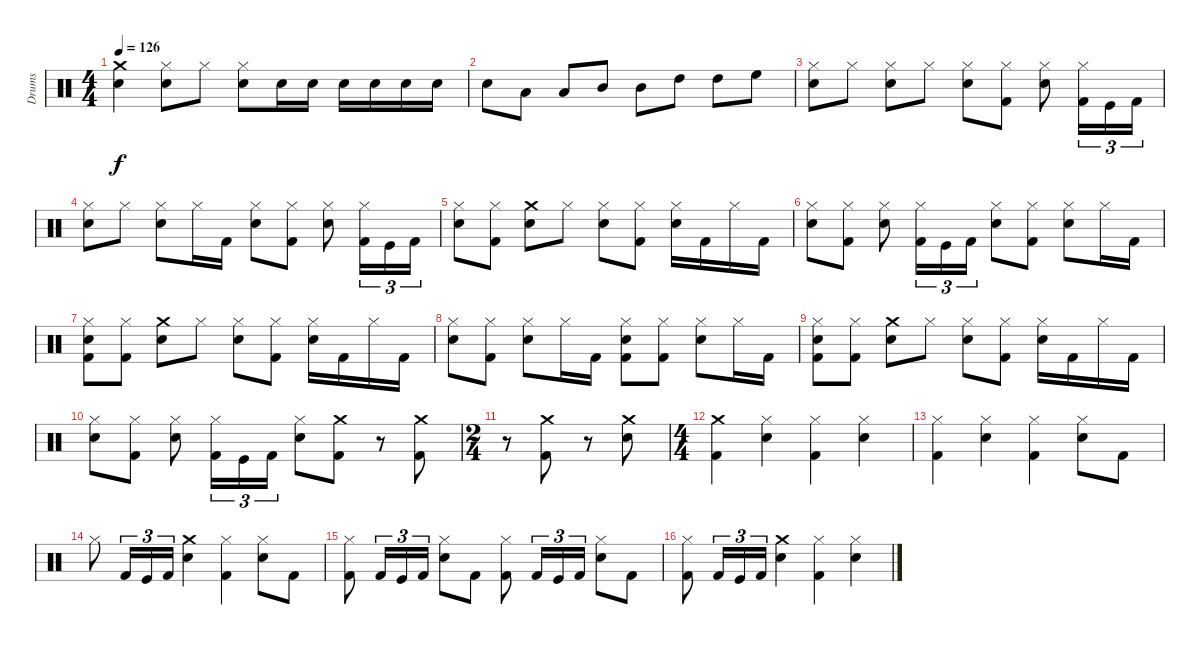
\track ("Drums" "Drums") {instrument percussion}
\staff {score}
\articulation defaults
\ts (4 4)
\tempo 126
\clef neutral
\ks c
("Crash medium (hit)" "Snare (hit) 2").4{dy f} ("Hi-Hat (closed)" "Snare (hit) 2").8 "Hi-Hat (closed)".8 ("Snare (hit) 2" "Hi-Hat (closed)").8 "Snare (hit) 2".16 "Snare (hit) 2".16 "Snare (hit) 2".16 "Snare (hit) 2".16 "Snare (hit) 2".16 "Snare (hit) 2".16 |
"Snare (hit) 2".8 "Low Tom (hit)".8 "Low Tom (hit)".8 "Mid Tom (hit)".8 "Mid Tom (hit)".8 "High Tom (hit)".8 "High Tom (hit)".8 "High Floor Tom (hit)".8 |
("Hi-Hat (closed)" "Snare (hit) 2").8 "Hi-Hat (closed)".8 ("Snare (hit) 2" "Hi-Hat (closed)").8 "Hi-Hat (closed)".8 ("Snare (hit) 2" "Hi-Hat (closed)").8 ("Kick (hit) 2" "Hi-Hat (closed)").8 ("Snare (hit) 2" "Hi-Hat (closed)").8 ("Kick (hit) 2" "Hi-Hat (closed)").16{tu (3 2)} "Kick (hit)".16{tu (3 2)} "Kick (hit) 2".16{tu (3 2)} |
("Hi-Hat (closed)" "Snare (hit) 2").8 "Hi-Hat (closed)".8 ("Snare (hit) 2" "Hi-Hat (closed)").8 "Hi-Hat (closed)".16 "Kick (hit) 2".16 ("Snare (hit) 2" "Hi-Hat (closed)").8 ("Kick (hit) 2" "Hi-Hat (closed)").8 ("Snare (hit) 2" "Hi-Hat (closed)").8 ("Kick (hit) 2" "Hi-Hat (closed)").16{tu (3 2)} "Kick (hit)".16{tu (3 2)} "Kick (hit) 2".16{tu (3 2)} |
("Hi-Hat (closed)" "Snare (hit) 2").8 ("Kick (hit) 2" "Hi-Hat (closed)").8 ("Crash medium (hit)" "Snare (hit) 2").8 "Hi-Hat (closed)".8 ("Snare (hit) 2" "Hi-Hat (closed)").8 ("Kick (hit) 2" "Hi-Hat (closed)").8 ("Snare (hit) 2" "Hi-Hat (closed)").16 "Kick (hit) 2".16 "Hi-Hat (closed)".16 "Kick (hit) 2".16 |
("Snare (hit) 2" "Hi-Hat (closed)").8 ("Hi-Hat (closed)" "Kick (hit) 2").8 ("Snare (hit) 2" "Hi-Hat (closed)").8 ("Hi-Hat (closed)" "Kick (hit) 2").16{tu (3 2)} "Kick (hit)".16{tu (3 2)} "Kick (hit) 2".16{tu (3 2)} ("Snare (hit) 2" "Hi-Hat (closed)").8 ("Kick (hit) 2" "Hi-Hat (closed)").8 ("Hi-Hat (closed)" "Snare (hit) 2").8 "Hi-Hat (closed)".16 "Kick (hit) 2".16 |
("Kick (hit) 2" "Snare (hit) 2" "Hi-Hat (closed)").8 ("Kick (hit) 2" "Hi-Hat (closed)").8 ("Crash medium (hit)" "Snare (hit) 2").8 "Hi-Hat (closed)".8 ("Snare (hit) 2" "Hi-Hat (closed)").8 ("Kick (hit) 2" "Hi-Hat (closed)").8 ("Hi-Hat (closed)" "Snare (hit) 2").16 "Kick (hit) 2".16 "Hi-Hat (closed)".16 "Kick (hit) 2".16 |
("Hi-Hat (closed)" "Snare (hit) 2").8 ("Kick (hit) 2" "Hi-Hat (closed)").8 ("Snare (hit) 2" "Hi-Hat (closed)").8 "Hi-Hat (closed)".16 "Kick (hit) 2".16 ("Kick (hit) 2" "Snare (hit) 2" "Hi-Hat (closed)").8 ("Kick (hit) 2" "Hi-Hat (closed)").8 ("Snare (hit) 2" "Hi-Hat (closed)").8 "Hi-Hat (closed)".16 "Kick (hit) 2".16 |
("Kick (hit) 2" "Snare (hit) 2" "Hi-Hat (closed)").8 ("Kick (hit) 2" "Hi-Hat (closed)").8 ("Crash medium (hit)" "Snare (hit) 2").8 "Hi-Hat (closed)".8 ("Snare (hit) 2" "Hi-Hat (closed)").8 ("Kick (hit) 2" "Hi-Hat (closed)").8 ("Hi-Hat (closed)" "Snare (hit) 2").16 "Kick (hit) 2".16 "Hi-Hat (closed)".16 "Kick (hit) 2".16 |
("Snare (hit) 2" "Hi-Hat (closed)").8 ("Hi-Hat (closed)" "Kick (hit) 2").8 ("Snare (hit) 2" "Hi-Hat (closed)").8 ("Hi-Hat (closed)" "Kick (hit) 2").16{tu (3 2)} "Kick (hit)".16{tu (3 2)} "Kick (hit) 2".16{tu (3 2)} ("Hi-Hat (closed)" "Snare (hit) 2").8 ("Kick (hit) 2" "Crash medium (hit)").8 r.8 ("Crash medium (hit)" "Kick (hit) 2").8 |
\ts (2 4)
r.8 ("Kick (hit) 2" "Crash medium (hit)").8 r.8 ("Snare (hit) 2" "Crash medium (hit)").8 |
\ts (4 4)
("Kick (hit) 2" "Crash medium (hit)").4 ("Hi-Hat (closed)" "Snare (hit) 2").4 ("Hi-Hat (closed)" "Kick (hit) 2").4 ("Snare (hit) 2" "Hi-Hat (closed)").4 |
("Hi-Hat (closed)" "Kick (hit) 2").4 ("Hi-Hat (closed)" "Snare (hit) 2").4 ("Hi-Hat (closed)" "Kick (hit) 2").4 ("Hi-Hat (closed)" "Snare (hit) 2").8 "Kick (hit) 2".8 |
"Hi-Hat (closed)".8 "Kick (hit) 2".16{tu (3 2)} "Kick (hit)".16{tu (3 2)} "Kick (hit) 2".16{tu (3 2)} ("Snare (hit) 2" "Crash medium (hit)").4 ("Hi-Hat (closed)" "Kick (hit) 2").4 ("Snare (hit) 2" "Hi-Hat (closed)").8 "Kick (hit) 2".8 |
("Kick (hit) 2" "Hi-Hat (closed)").8 "Kick (hit) 2".16{tu (3 2)} "Kick (hit)".16{tu (3 2)} "Kick (hit) 2".16{tu (3 2)} ("Snare (hit) 2" "Hi-Hat (closed)").8 "Kick (hit) 2".8 ("Kick (hit) 2" "Hi-Hat (closed)").8 "Kick (hit) 2".16{tu (3 2)} "Kick (hit)".16{tu (3 2)} "Kick (hit) 2".16{tu (3 2)} ("Snare (hit) 2" "Hi-Hat (closed)").8 "Kick (hit) 2".8 |
("Hi-Hat (closed)" "Kick (hit) 2").8 "Kick (hit) 2".16{tu (3 2)} "Kick (hit)".16{tu (3 2)} "Kick (hit) 2".16{tu (3 2)} ("Snare (hit) 2" "Crash medium (hit)").4 ("Kick (hit) 2" "Hi-Hat (closed)").4 ("Hi-Hat (closed)" "Snare (hit) 2").4
